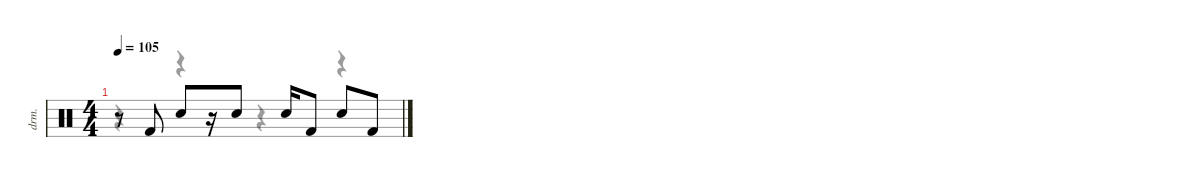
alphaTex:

\defaultSystemsLayout 4
\hideDynamics
\bracketExtendMode nobrackets
\otherSystemsTrackNameOrientation horizontal
\track ("Drums" "drm.") {instrument percussion}
\staff {score}
\articulation defaults
\voice
\ts (4 4)
\tempo 105
\clef neutral
\ks c
r.8{dy fff} "Kick (hit) 2".8 "Snare (hit) 2".8 r.16 "Snare (hit) 2".8 "Snare (hit) 2".16 "Kick (hit) 2".8 "Snare (hit) 2".8 "Kick (hit) 2".8
\voice
\clef neutral
\ottava regular
\simile none
\ks c
r.4{dy mf} r.4 r.4 r.4
